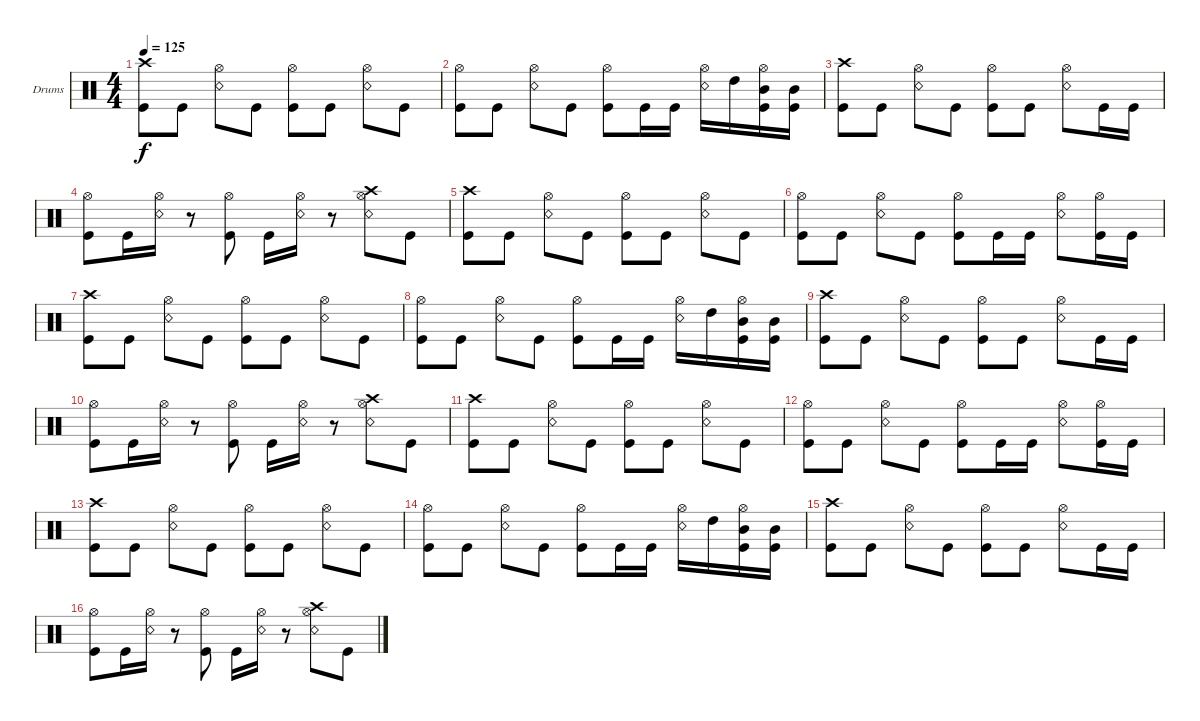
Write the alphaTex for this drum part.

\defaultSystemsLayout 4
\bracketExtendMode groupsimilarinstruments
\firstSystemTrackNameOrientation horizontal
\otherSystemsTrackNameOrientation horizontal
\track ("Drumkit" "Drums") {instrument percussion}
\staff {score}
\articulation defaults
\ts (4 4)
\tempo 125
\clef neutral
\ks c
("Crash high (hit)" "Kick (hit)").8{dy f} "Kick (hit)".8 ("Hi-Hat (open)" "Snare (rim shot)").8 "Kick (hit)".8 ("Hi-Hat (open)" "Kick (hit)").8 "Kick (hit)".8 ("Hi-Hat (open)" "Snare (rim shot)").8 "Kick (hit)".8 |
("Kick (hit)" "Hi-Hat (open)").8 "Kick (hit)".8 ("Hi-Hat (open)" "Snare (rim shot)").8 "Kick (hit)".8 ("Hi-Hat (open)" "Kick (hit)").8 "Kick (hit)".16 "Kick (hit)".16 ("Snare (rim shot)" "Hi-Hat (open)").16 "High Tom (hit)".16 ("Kick (hit)" "Mid Tom (hit)" "Hi-Hat (open)").16 ("Kick (hit)" "Mid Tom (hit)").16 |
("Crash high (hit)" "Kick (hit)").8 "Kick (hit)".8 ("Hi-Hat (open)" "Snare (rim shot)").8 "Kick (hit)".8 ("Hi-Hat (open)" "Kick (hit)").8 "Kick (hit)".8 ("Hi-Hat (open)" "Snare (rim shot)").8 "Kick (hit)".16 "Kick (hit)".16 |
("Kick (hit)" "Hi-Hat (open)").8 "Kick (hit)".16 ("Hi-Hat (open)" "Snare (rim shot)").16 r.8 ("Hi-Hat (open)" "Kick (hit)").8 "Kick (hit)".16 ("Snare (rim shot)" "Hi-Hat (open)").16 r.8 ("Snare (rim shot)" "Hi-Hat (open)" "Crash high (hit)").8 "Kick (hit)".8 |
("Crash high (hit)" "Kick (hit)").8 "Kick (hit)".8 ("Hi-Hat (open)" "Snare (rim shot)").8 "Kick (hit)".8 ("Hi-Hat (open)" "Kick (hit)").8 "Kick (hit)".8 ("Hi-Hat (open)" "Snare (rim shot)").8 "Kick (hit)".8 |
("Kick (hit)" "Hi-Hat (open)").8 "Kick (hit)".8 ("Hi-Hat (open)" "Snare (rim shot)").8 "Kick (hit)".8 ("Hi-Hat (open)" "Kick (hit)").8 "Kick (hit)".16 "Kick (hit)".16 ("Snare (rim shot)" "Hi-Hat (open)").8 ("Kick (hit)" "Hi-Hat (open)").16 "Kick (hit)".16 |
("Crash high (hit)" "Kick (hit)").8 "Kick (hit)".8 ("Hi-Hat (open)" "Snare (rim shot)").8 "Kick (hit)".8 ("Hi-Hat (open)" "Kick (hit)").8 "Kick (hit)".8 ("Hi-Hat (open)" "Snare (rim shot)").8 "Kick (hit)".8 |
("Kick (hit)" "Hi-Hat (open)").8 "Kick (hit)".8 ("Hi-Hat (open)" "Snare (rim shot)").8 "Kick (hit)".8 ("Hi-Hat (open)" "Kick (hit)").8 "Kick (hit)".16 "Kick (hit)".16 ("Snare (rim shot)" "Hi-Hat (open)").16 "High Tom (hit)".16 ("Kick (hit)" "Mid Tom (hit)" "Hi-Hat (open)").16 ("Kick (hit)" "Mid Tom (hit)").16 |
("Crash high (hit)" "Kick (hit)").8 "Kick (hit)".8 ("Hi-Hat (open)" "Snare (rim shot)").8 "Kick (hit)".8 ("Hi-Hat (open)" "Kick (hit)").8 "Kick (hit)".8 ("Hi-Hat (open)" "Snare (rim shot)").8 "Kick (hit)".16 "Kick (hit)".16 |
("Kick (hit)" "Hi-Hat (open)").8 "Kick (hit)".16 ("Hi-Hat (open)" "Snare (rim shot)").16 r.8 ("Hi-Hat (open)" "Kick (hit)").8 "Kick (hit)".16 ("Snare (rim shot)" "Hi-Hat (open)").16 r.8 ("Snare (rim shot)" "Hi-Hat (open)" "Crash high (hit)").8 "Kick (hit)".8 |
("Crash high (hit)" "Kick (hit)").8 "Kick (hit)".8 ("Hi-Hat (open)" "Snare (rim shot)").8 "Kick (hit)".8 ("Hi-Hat (open)" "Kick (hit)").8 "Kick (hit)".8 ("Hi-Hat (open)" "Snare (rim shot)").8 "Kick (hit)".8 |
("Kick (hit)" "Hi-Hat (open)").8 "Kick (hit)".8 ("Hi-Hat (open)" "Snare (rim shot)").8 "Kick (hit)".8 ("Hi-Hat (open)" "Kick (hit)").8 "Kick (hit)".16 "Kick (hit)".16 ("Snare (rim shot)" "Hi-Hat (open)").8 ("Kick (hit)" "Hi-Hat (open)").16 "Kick (hit)".16 |
("Crash high (hit)" "Kick (hit)").8 "Kick (hit)".8 ("Hi-Hat (open)" "Snare (rim shot)").8 "Kick (hit)".8 ("Hi-Hat (open)" "Kick (hit)").8 "Kick (hit)".8 ("Hi-Hat (open)" "Snare (rim shot)").8 "Kick (hit)".8 |
("Kick (hit)" "Hi-Hat (open)").8 "Kick (hit)".8 ("Hi-Hat (open)" "Snare (rim shot)").8 "Kick (hit)".8 ("Hi-Hat (open)" "Kick (hit)").8 "Kick (hit)".16 "Kick (hit)".16 ("Snare (rim shot)" "Hi-Hat (open)").16 "High Tom (hit)".16 ("Kick (hit)" "Mid Tom (hit)" "Hi-Hat (open)").16 ("Kick (hit)" "Mid Tom (hit)").16 |
("Crash high (hit)" "Kick (hit)").8 "Kick (hit)".8 ("Hi-Hat (open)" "Snare (rim shot)").8 "Kick (hit)".8 ("Hi-Hat (open)" "Kick (hit)").8 "Kick (hit)".8 ("Hi-Hat (open)" "Snare (rim shot)").8 "Kick (hit)".16 "Kick (hit)".16 |
("Kick (hit)" "Hi-Hat (open)").8 "Kick (hit)".16 ("Hi-Hat (open)" "Snare (rim shot)").16 r.8 ("Hi-Hat (open)" "Kick (hit)").8 "Kick (hit)".16 ("Snare (rim shot)" "Hi-Hat (open)").16 r.8 ("Snare (rim shot)" "Hi-Hat (open)" "Crash high (hit)").8 "Kick (hit)".8
